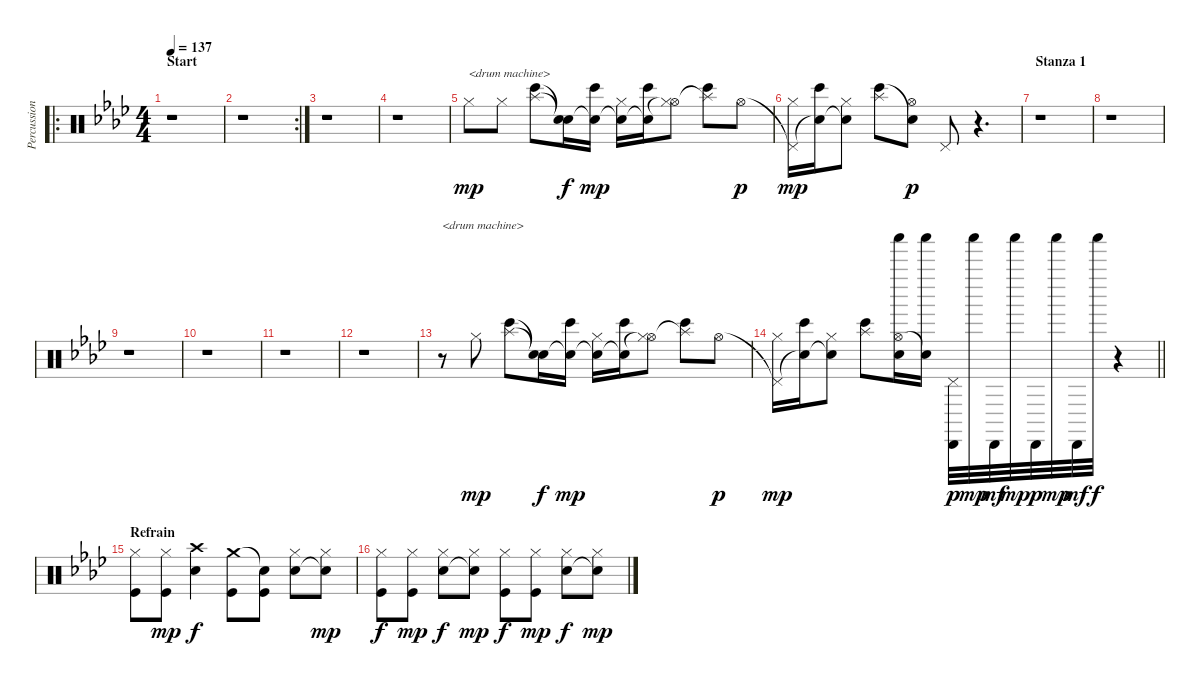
\track ("Percussion" "Percussion") {instrument percussion}
\staff {score}
\articulation defaults
\ro
\ts (4 4)
\section ("" "Start")
\tempo 137
\clef neutral
\ks ab
r.1{dy mp} |
\rc 2
r.1 |
r.1 |
r.1 |
"Hi-Hat (closed)".8{txt "<drum machine>"} "Hi-Hat (closed)".8 ("Splash (hit)" "Bongo High (hit)").8 ("Snare (hit)"{t} "Snare (hit)"{t}).16{dy f} ("Snare (hit)"{t} "Bongo High (hit)").16{dy mp} ("Snare (hit)"{t} "Hi-Hat (closed)").16 ("Snare (hit)"{t} "Bongo High (hit)").16 ("Hi-Hat (open)"{t} "Hi-Hat (closed)").8 ("Splash (hit)"{t} "Bongo High (hit)").8 "Hi-Hat (open)".8{dy p} |
("Pedal Hi-Hat (hit)"{t} "Hi-Hat (closed)").16{dy mp} ("Snare (hit)"{t} "Bongo High (hit)").16 ("Snare (hit)"{t} "Hi-Hat (closed)").8 ("Splash (hit)" "Bongo High (hit)").8 ("Hi-Hat (open)" "Snare (hit)"{t}).8{dy p} "Pedal Hi-Hat (hit)".8 r.4{d} |
\section ("" "Stanza 1")
r.1 |
r.1 |
r.1 |
r.1 |
r.1 |
r.1 |
r.8{txt "<drum machine>"} "Hi-Hat (closed)".8{dy mp} ("Splash (hit)" "Bongo High (hit)").8 ("Snare (hit)"{t} "Snare (hit)"{t}).16{dy f} ("Snare (hit)"{t} "Bongo High (hit)").16{dy mp} ("Snare (hit)"{t} "Hi-Hat (closed)").16 ("Snare (hit)"{t} "Bongo High (hit)").16 ("Hi-Hat (open)"{t} "Hi-Hat (closed)").8 ("Splash (hit)"{t} "Bongo High (hit)").8 "Hi-Hat (open)".8{dy p} |
\barLineRight lightlight
("Pedal Hi-Hat (hit)"{t} "Hi-Hat (closed)").16{dy mp} ("Snare (hit)"{t} "Bongo High (hit)").16 ("Snare (hit)"{t} "Hi-Hat (closed)").8 ("Splash (hit)" "Bongo High (hit)").8 ("Hi-Hat (open)" "Shaker (hit)" "Snare (hit)").16 ("Snare (hit)"{t} "Shaker (hit)").16 ("Pedal Hi-Hat (hit)" "Cabasa (hit)").32{dy p} "Shaker (hit)".32{dy mp} "Cabasa (hit)".32{dy mf} "Shaker (hit)".32{dy mp} "Cabasa (hit)".32{dy p} "Shaker (hit)".32{dy mp} "Cabasa (hit)".32{dy mf} "Shaker (hit)".32{dy f} r.4 |
\section ("" "Refrain")
("Hi-Hat (closed)" "Kick (hit)").8{volume 15} ("Hi-Hat (closed)" "Kick (hit)").8{dy mp} ("Crash high (hit)" "Electric Snare (hit)").4{dy f} ("Crash medium (hit)" "Kick (hit)").8 ("Snare (hit)"{t} "Kick (hit)").8 ("Hi-Hat (closed)" "Electric Snare (hit)").8 ("Hi-Hat (closed)" "Snare (hit)"{t}).8{dy mp} |
("Hi-Hat (closed)" "Kick (hit)").8{dy f} ("Hi-Hat (closed)" "Kick (hit)").8{dy mp} ("Hi-Hat (closed)" "Electric Snare (hit)").8{dy f} ("Hi-Hat (closed)" "Snare (hit)"{t}).8{dy mp} ("Hi-Hat (closed)" "Kick (hit)").8{dy f} ("Hi-Hat (closed)" "Kick (hit)").8{dy mp} ("Hi-Hat (closed)" "Electric Snare (hit)").8{dy f} ("Hi-Hat (closed)" "Snare (hit)"{t}).8{dy mp}
